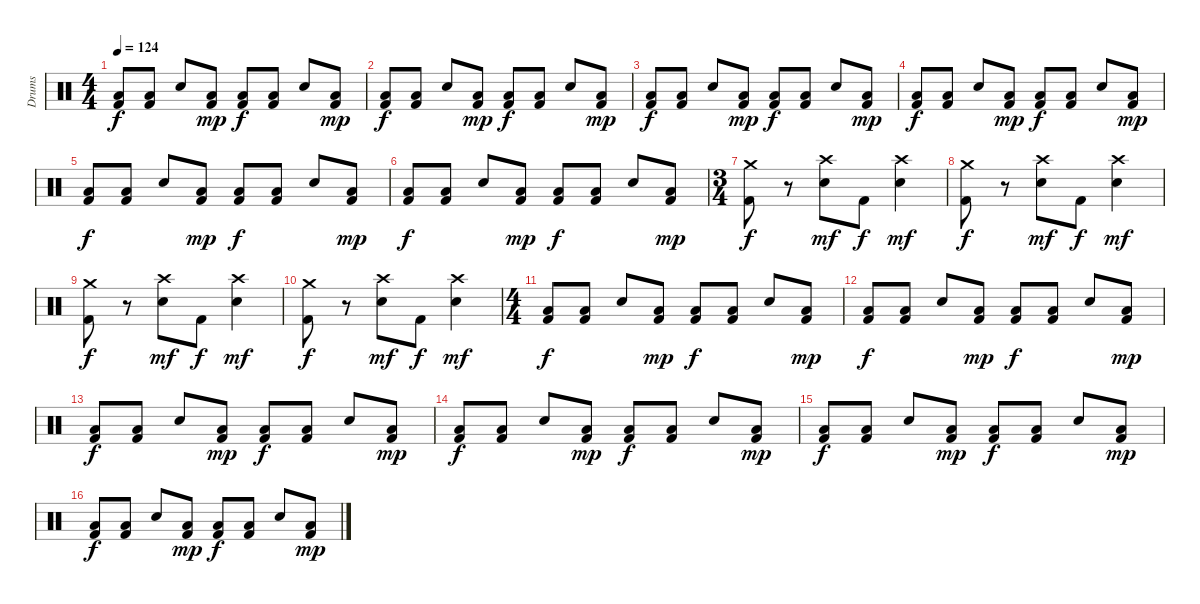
\track ("Drums" "Drums") {instrument percussion}
\staff {score}
\articulation defaults
\ts (4 4)
\tempo 124
\clef neutral
\ks c
("Low Tom (hit)" "Kick (hit) 2").8{dy f} ("Low Tom (hit)" "Kick (hit) 2").8 "Snare (hit) 2".8 ("Low Tom (hit)" "Kick (hit) 2").8{dy mp} ("Low Tom (hit)" "Kick (hit) 2").8{dy f} ("Low Tom (hit)" "Kick (hit) 2").8 "Snare (hit) 2".8 ("Low Tom (hit)" "Kick (hit) 2").8{dy mp} |
("Low Tom (hit)" "Kick (hit) 2").8{dy f} ("Low Tom (hit)" "Kick (hit) 2").8 "Snare (hit) 2".8 ("Low Tom (hit)" "Kick (hit) 2").8{dy mp} ("Low Tom (hit)" "Kick (hit) 2").8{dy f} ("Low Tom (hit)" "Kick (hit) 2").8 "Snare (hit) 2".8 ("Low Tom (hit)" "Kick (hit) 2").8{dy mp} |
("Low Tom (hit)" "Kick (hit) 2").8{dy f} ("Low Tom (hit)" "Kick (hit) 2").8 "Snare (hit) 2".8 ("Low Tom (hit)" "Kick (hit) 2").8{dy mp} ("Low Tom (hit)" "Kick (hit) 2").8{dy f} ("Low Tom (hit)" "Kick (hit) 2").8 "Snare (hit) 2".8 ("Low Tom (hit)" "Kick (hit) 2").8{dy mp} |
("Low Tom (hit)" "Kick (hit) 2").8{dy f} ("Low Tom (hit)" "Kick (hit) 2").8 "Snare (hit) 2".8 ("Low Tom (hit)" "Kick (hit) 2").8{dy mp} ("Low Tom (hit)" "Kick (hit) 2").8{dy f} ("Low Tom (hit)" "Kick (hit) 2").8 "Snare (hit) 2".8 ("Low Tom (hit)" "Kick (hit) 2").8{dy mp} |
("Low Tom (hit)" "Kick (hit) 2").8{dy f} ("Low Tom (hit)" "Kick (hit) 2").8 "Snare (hit) 2".8 ("Low Tom (hit)" "Kick (hit) 2").8{dy mp} ("Low Tom (hit)" "Kick (hit) 2").8{dy f} ("Low Tom (hit)" "Kick (hit) 2").8 "Snare (hit) 2".8 ("Low Tom (hit)" "Kick (hit) 2").8{dy mp} |
("Low Tom (hit)" "Kick (hit) 2").8{dy f} ("Low Tom (hit)" "Kick (hit) 2").8 "Snare (hit) 2".8 ("Low Tom (hit)" "Kick (hit) 2").8{dy mp} ("Low Tom (hit)" "Kick (hit) 2").8{dy f} ("Low Tom (hit)" "Kick (hit) 2").8 "Snare (hit) 2".8 ("Low Tom (hit)" "Kick (hit) 2").8{dy mp} |
\ts (3 4)
("Crash medium (hit)" "Kick (hit) 2").8{dy f} r.8 ("Crash high (hit)" "Snare (hit) 2").8{dy mf} "Kick (hit) 2".8{dy f} ("Crash high (hit)" "Snare (hit) 2").4{dy mf} |
("Crash medium (hit)" "Kick (hit) 2").8{dy f} r.8 ("Crash high (hit)" "Snare (hit) 2").8{dy mf} "Kick (hit) 2".8{dy f} ("Crash high (hit)" "Snare (hit) 2").4{dy mf} |
("Crash medium (hit)" "Kick (hit) 2").8{dy f} r.8 ("Crash high (hit)" "Snare (hit) 2").8{dy mf} "Kick (hit) 2".8{dy f} ("Crash high (hit)" "Snare (hit) 2").4{dy mf} |
("Crash medium (hit)" "Kick (hit) 2").8{dy f} r.8 ("Crash high (hit)" "Snare (hit) 2").8{dy mf} "Kick (hit) 2".8{dy f} ("Crash high (hit)" "Snare (hit) 2").4{dy mf} |
\ts (4 4)
("Low Tom (hit)" "Kick (hit) 2").8{dy f} ("Low Tom (hit)" "Kick (hit) 2").8 "Snare (hit) 2".8 ("Low Tom (hit)" "Kick (hit) 2").8{dy mp} ("Low Tom (hit)" "Kick (hit) 2").8{dy f} ("Low Tom (hit)" "Kick (hit) 2").8 "Snare (hit) 2".8 ("Low Tom (hit)" "Kick (hit) 2").8{dy mp} |
("Low Tom (hit)" "Kick (hit) 2").8{dy f} ("Low Tom (hit)" "Kick (hit) 2").8 "Snare (hit) 2".8 ("Low Tom (hit)" "Kick (hit) 2").8{dy mp} ("Low Tom (hit)" "Kick (hit) 2").8{dy f} ("Low Tom (hit)" "Kick (hit) 2").8 "Snare (hit) 2".8 ("Low Tom (hit)" "Kick (hit) 2").8{dy mp} |
("Low Tom (hit)" "Kick (hit) 2").8{dy f} ("Low Tom (hit)" "Kick (hit) 2").8 "Snare (hit) 2".8 ("Low Tom (hit)" "Kick (hit) 2").8{dy mp} ("Low Tom (hit)" "Kick (hit) 2").8{dy f} ("Low Tom (hit)" "Kick (hit) 2").8 "Snare (hit) 2".8 ("Low Tom (hit)" "Kick (hit) 2").8{dy mp} |
("Low Tom (hit)" "Kick (hit) 2").8{dy f} ("Low Tom (hit)" "Kick (hit) 2").8 "Snare (hit) 2".8 ("Low Tom (hit)" "Kick (hit) 2").8{dy mp} ("Low Tom (hit)" "Kick (hit) 2").8{dy f} ("Low Tom (hit)" "Kick (hit) 2").8 "Snare (hit) 2".8 ("Low Tom (hit)" "Kick (hit) 2").8{dy mp} |
("Low Tom (hit)" "Kick (hit) 2").8{dy f} ("Low Tom (hit)" "Kick (hit) 2").8 "Snare (hit) 2".8 ("Low Tom (hit)" "Kick (hit) 2").8{dy mp} ("Low Tom (hit)" "Kick (hit) 2").8{dy f} ("Low Tom (hit)" "Kick (hit) 2").8 "Snare (hit) 2".8 ("Low Tom (hit)" "Kick (hit) 2").8{dy mp} |
("Low Tom (hit)" "Kick (hit) 2").8{dy f} ("Low Tom (hit)" "Kick (hit) 2").8 "Snare (hit) 2".8 ("Low Tom (hit)" "Kick (hit) 2").8{dy mp} ("Low Tom (hit)" "Kick (hit) 2").8{dy f} ("Low Tom (hit)" "Kick (hit) 2").8 "Snare (hit) 2".8 ("Low Tom (hit)" "Kick (hit) 2").8{dy mp}
